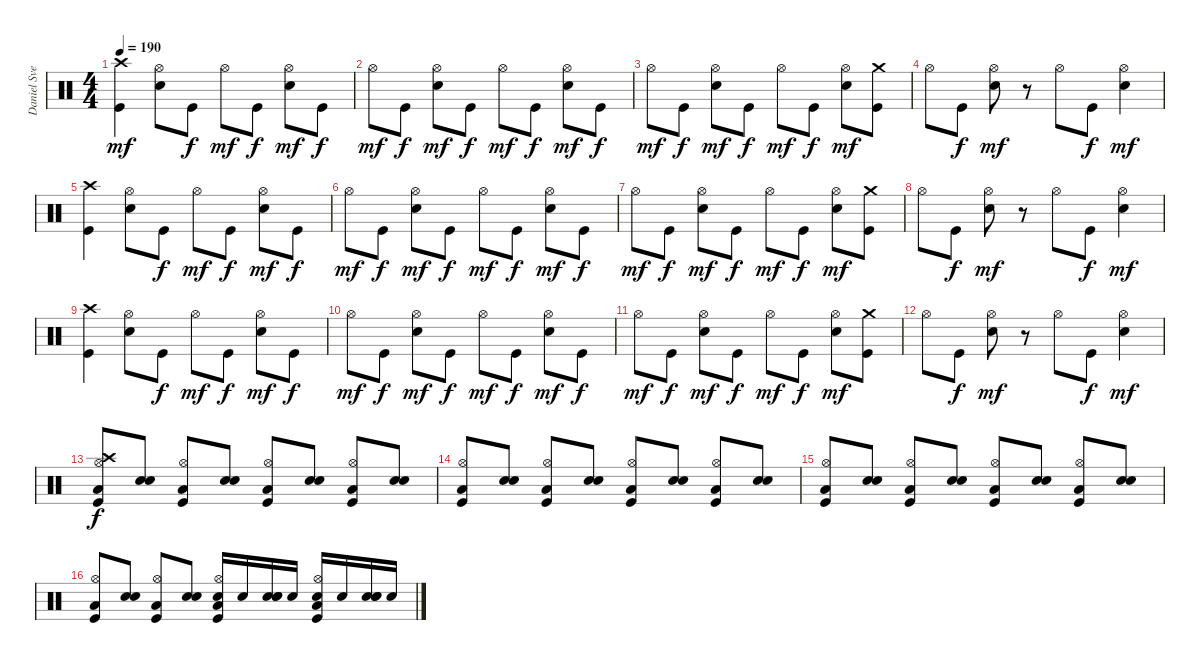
\track ("Daniel Svensson" "Daniel Sve") {instrument percussion}
\staff {score}
\articulation defaults
\ts (4 4)
\tempo 190
\clef neutral
\ks c
("Kick (hit)" "Crash high (hit)").4{dy mf} ("Electric Snare (hit)" "Hi-Hat (open)").8 "Kick (hit)".8{dy f} "Hi-Hat (open)".8{dy mf} "Kick (hit)".8{dy f} ("Electric Snare (hit)" "Hi-Hat (open)").8{dy mf} "Kick (hit)".8{dy f} |
"Hi-Hat (open)".8{dy mf} "Kick (hit)".8{dy f} ("Electric Snare (hit)" "Hi-Hat (open)").8{dy mf} "Kick (hit)".8{dy f} "Hi-Hat (open)".8{dy mf} "Kick (hit)".8{dy f} ("Electric Snare (hit)" "Hi-Hat (open)").8{dy mf} "Kick (hit)".8{dy f} |
"Hi-Hat (open)".8{dy mf} "Kick (hit)".8{dy f} ("Electric Snare (hit)" "Hi-Hat (open)").8{dy mf} "Kick (hit)".8{dy f} "Hi-Hat (open)".8{dy mf} "Kick (hit)".8{dy f} ("Electric Snare (hit)" "Hi-Hat (open)").8{dy mf} ("Kick (hit)" "Crash medium (hit)").8 |
"Hi-Hat (open)".8 "Kick (hit)".8{dy f} ("Electric Snare (hit)" "Hi-Hat (open)").8{dy mf} r.8 "Hi-Hat (open)".8 "Kick (hit)".8{dy f} ("Electric Snare (hit)" "Hi-Hat (open)").4{dy mf} |
("Kick (hit)" "Crash high (hit)").4 ("Electric Snare (hit)" "Hi-Hat (open)").8 "Kick (hit)".8{dy f} "Hi-Hat (open)".8{dy mf} "Kick (hit)".8{dy f} ("Electric Snare (hit)" "Hi-Hat (open)").8{dy mf} "Kick (hit)".8{dy f} |
"Hi-Hat (open)".8{dy mf} "Kick (hit)".8{dy f} ("Electric Snare (hit)" "Hi-Hat (open)").8{dy mf} "Kick (hit)".8{dy f} "Hi-Hat (open)".8{dy mf} "Kick (hit)".8{dy f} ("Electric Snare (hit)" "Hi-Hat (open)").8{dy mf} "Kick (hit)".8{dy f} |
"Hi-Hat (open)".8{dy mf} "Kick (hit)".8{dy f} ("Electric Snare (hit)" "Hi-Hat (open)").8{dy mf} "Kick (hit)".8{dy f} "Hi-Hat (open)".8{dy mf} "Kick (hit)".8{dy f} ("Electric Snare (hit)" "Hi-Hat (open)").8{dy mf} ("Kick (hit)" "Crash medium (hit)").8 |
"Hi-Hat (open)".8 "Kick (hit)".8{dy f} ("Electric Snare (hit)" "Hi-Hat (open)").8{dy mf} r.8 "Hi-Hat (open)".8 "Kick (hit)".8{dy f} ("Electric Snare (hit)" "Hi-Hat (open)").4{dy mf} |
("Kick (hit)" "Crash high (hit)").4 ("Electric Snare (hit)" "Hi-Hat (open)").8 "Kick (hit)".8{dy f} "Hi-Hat (open)".8{dy mf} "Kick (hit)".8{dy f} ("Electric Snare (hit)" "Hi-Hat (open)").8{dy mf} "Kick (hit)".8{dy f} |
"Hi-Hat (open)".8{dy mf} "Kick (hit)".8{dy f} ("Electric Snare (hit)" "Hi-Hat (open)").8{dy mf} "Kick (hit)".8{dy f} "Hi-Hat (open)".8{dy mf} "Kick (hit)".8{dy f} ("Electric Snare (hit)" "Hi-Hat (open)").8{dy mf} "Kick (hit)".8{dy f} |
"Hi-Hat (open)".8{dy mf} "Kick (hit)".8{dy f} ("Electric Snare (hit)" "Hi-Hat (open)").8{dy mf} "Kick (hit)".8{dy f} "Hi-Hat (open)".8{dy mf} "Kick (hit)".8{dy f} ("Electric Snare (hit)" "Hi-Hat (open)").8{dy mf} ("Kick (hit)" "Crash medium (hit)").8 |
"Hi-Hat (open)".8 "Kick (hit)".8{dy f} ("Electric Snare (hit)" "Hi-Hat (open)").8{dy mf} r.8 "Hi-Hat (open)".8 "Kick (hit)".8{dy f} ("Electric Snare (hit)" "Hi-Hat (open)").4{dy mf} |
("Crash high (hit)" "Hi-Hat (open)" "Low Floor Tom (hit)" "Kick (hit)").8{dy f} ("Electric Snare (hit)" "Electric Snare (hit)").8 ("Hi-Hat (open)" "Low Floor Tom (hit)" "Kick (hit)").8 ("Electric Snare (hit)" "Electric Snare (hit)").8 ("Hi-Hat (open)" "Low Floor Tom (hit)" "Kick (hit)").8 ("Electric Snare (hit)" "Electric Snare (hit)").8 ("Hi-Hat (open)" "Low Floor Tom (hit)" "Kick (hit)").8 ("Electric Snare (hit)" "Electric Snare (hit)").8 |
("Hi-Hat (open)" "Low Floor Tom (hit)" "Kick (hit)").8 ("Electric Snare (hit)" "Electric Snare (hit)").8 ("Hi-Hat (open)" "Low Floor Tom (hit)" "Kick (hit)").8 ("Electric Snare (hit)" "Electric Snare (hit)").8 ("Hi-Hat (open)" "Low Floor Tom (hit)" "Kick (hit)").8 ("Electric Snare (hit)" "Electric Snare (hit)").8 ("Hi-Hat (open)" "Low Floor Tom (hit)" "Kick (hit)").8 ("Electric Snare (hit)" "Electric Snare (hit)").8 |
("Hi-Hat (open)" "Low Floor Tom (hit)" "Kick (hit)").8 ("Electric Snare (hit)" "Electric Snare (hit)").8 ("Hi-Hat (open)" "Low Floor Tom (hit)" "Kick (hit)").8 ("Electric Snare (hit)" "Electric Snare (hit)").8 ("Hi-Hat (open)" "Low Floor Tom (hit)" "Kick (hit)").8 ("Electric Snare (hit)" "Electric Snare (hit)").8 ("Hi-Hat (open)" "Low Floor Tom (hit)" "Kick (hit)").8 ("Electric Snare (hit)" "Electric Snare (hit)").8 |
("Hi-Hat (open)" "Low Floor Tom (hit)" "Kick (hit)").8 ("Electric Snare (hit)" "Electric Snare (hit)").8 ("Hi-Hat (open)" "Low Floor Tom (hit)" "Kick (hit)").8 ("Electric Snare (hit)" "Electric Snare (hit)").8 ("Hi-Hat (open)" "Electric Snare (hit)" "Low Floor Tom (hit)" "Kick (hit)").16 "Electric Snare (hit)".16 ("Electric Snare (hit)" "Electric Snare (hit)" "Electric Snare (hit)").16 "Electric Snare (hit)".16 ("Hi-Hat (open)" "Electric Snare (hit)" "Low Floor Tom (hit)" "Kick (hit)").16 "Electric Snare (hit)".16 ("Electric Snare (hit)" "Electric Snare (hit)" "Electric Snare (hit)").16 "Electric Snare (hit)".16
